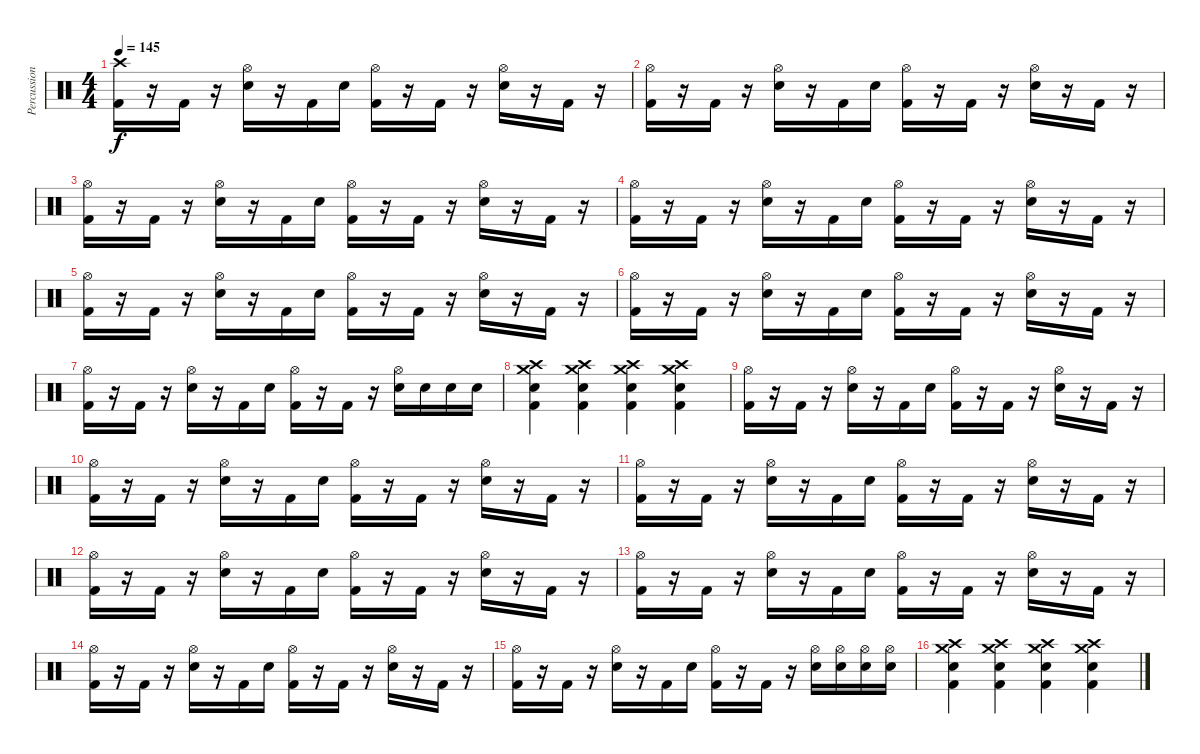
\track ("Percussion" "Percussion") {instrument percussion}
\staff {score}
\articulation defaults
\ts (4 4)
\tempo 145
\clef neutral
\ks c
("Crash high (hit)" "Kick (hit) 2").16{dy f} r.16 "Kick (hit) 2".16 r.16 ("Hi-Hat (open)" "Electric Snare (hit)").16 r.16 "Kick (hit) 2".16 "Electric Snare (hit)".16 ("Hi-Hat (open)" "Kick (hit) 2").16 r.16 "Kick (hit) 2".16 r.16 ("Hi-Hat (open)" "Electric Snare (hit)").16 r.16 "Kick (hit) 2".16 r.16 |
("Hi-Hat (open)" "Kick (hit) 2").16 r.16 "Kick (hit) 2".16 r.16 ("Hi-Hat (open)" "Electric Snare (hit)").16 r.16 "Kick (hit) 2".16 "Electric Snare (hit)".16 ("Hi-Hat (open)" "Kick (hit) 2").16 r.16 "Kick (hit) 2".16 r.16 ("Hi-Hat (open)" "Electric Snare (hit)").16 r.16 "Kick (hit) 2".16 r.16 |
("Hi-Hat (open)" "Kick (hit) 2").16 r.16 "Kick (hit) 2".16 r.16 ("Hi-Hat (open)" "Electric Snare (hit)").16 r.16 "Kick (hit) 2".16 "Electric Snare (hit)".16 ("Hi-Hat (open)" "Kick (hit) 2").16 r.16 "Kick (hit) 2".16 r.16 ("Hi-Hat (open)" "Electric Snare (hit)").16 r.16 "Kick (hit) 2".16 r.16 |
("Hi-Hat (open)" "Kick (hit) 2").16 r.16 "Kick (hit) 2".16 r.16 ("Hi-Hat (open)" "Electric Snare (hit)").16 r.16 "Kick (hit) 2".16 "Electric Snare (hit)".16 ("Hi-Hat (open)" "Kick (hit) 2").16 r.16 "Kick (hit) 2".16 r.16 ("Hi-Hat (open)" "Electric Snare (hit)").16 r.16 "Kick (hit) 2".16 r.16 |
("Hi-Hat (open)" "Kick (hit) 2").16 r.16 "Kick (hit) 2".16 r.16 ("Hi-Hat (open)" "Electric Snare (hit)").16 r.16 "Kick (hit) 2".16 "Electric Snare (hit)".16 ("Hi-Hat (open)" "Kick (hit) 2").16 r.16 "Kick (hit) 2".16 r.16 ("Hi-Hat (open)" "Electric Snare (hit)").16 r.16 "Kick (hit) 2".16 r.16 |
("Hi-Hat (open)" "Kick (hit) 2").16 r.16 "Kick (hit) 2".16 r.16 ("Hi-Hat (open)" "Electric Snare (hit)").16 r.16 "Kick (hit) 2".16 "Electric Snare (hit)".16 ("Hi-Hat (open)" "Kick (hit) 2").16 r.16 "Kick (hit) 2".16 r.16 ("Hi-Hat (open)" "Electric Snare (hit)").16 r.16 "Kick (hit) 2".16 r.16 |
("Hi-Hat (open)" "Kick (hit) 2").16 r.16 "Kick (hit) 2".16 r.16 ("Hi-Hat (open)" "Electric Snare (hit)").16 r.16 "Kick (hit) 2".16 "Electric Snare (hit)".16 ("Hi-Hat (open)" "Kick (hit) 2").16 r.16 "Kick (hit) 2".16 r.16 ("Hi-Hat (open)" "Electric Snare (hit)").16 "Electric Snare (hit)".16 "Electric Snare (hit)".16 "Electric Snare (hit)".16 |
("Crash high (hit)" "Crash medium (hit)" "Electric Snare (hit)" "Kick (hit) 2").4 ("Crash high (hit)" "Crash medium (hit)" "Electric Snare (hit)" "Kick (hit) 2").4 ("Crash high (hit)" "Crash medium (hit)" "Electric Snare (hit)" "Kick (hit) 2").4 ("Crash high (hit)" "Crash medium (hit)" "Electric Snare (hit)" "Kick (hit) 2").4 |
("Hi-Hat (open)" "Kick (hit) 2").16 r.16 "Kick (hit) 2".16 r.16 ("Hi-Hat (open)" "Electric Snare (hit)").16 r.16 "Kick (hit) 2".16 "Electric Snare (hit)".16 ("Hi-Hat (open)" "Kick (hit) 2").16 r.16 "Kick (hit) 2".16 r.16 ("Hi-Hat (open)" "Electric Snare (hit)").16 r.16 "Kick (hit) 2".16 r.16 |
("Hi-Hat (open)" "Kick (hit) 2").16 r.16 "Kick (hit) 2".16 r.16 ("Hi-Hat (open)" "Electric Snare (hit)").16 r.16 "Kick (hit) 2".16 "Electric Snare (hit)".16 ("Hi-Hat (open)" "Kick (hit) 2").16 r.16 "Kick (hit) 2".16 r.16 ("Hi-Hat (open)" "Electric Snare (hit)").16 r.16 "Kick (hit) 2".16 r.16 |
("Hi-Hat (open)" "Kick (hit) 2").16 r.16 "Kick (hit) 2".16 r.16 ("Hi-Hat (open)" "Electric Snare (hit)").16 r.16 "Kick (hit) 2".16 "Electric Snare (hit)".16 ("Hi-Hat (open)" "Kick (hit) 2").16 r.16 "Kick (hit) 2".16 r.16 ("Hi-Hat (open)" "Electric Snare (hit)").16 r.16 "Kick (hit) 2".16 r.16 |
("Hi-Hat (open)" "Kick (hit) 2").16 r.16 "Kick (hit) 2".16 r.16 ("Hi-Hat (open)" "Electric Snare (hit)").16 r.16 "Kick (hit) 2".16 "Electric Snare (hit)".16 ("Hi-Hat (open)" "Kick (hit) 2").16 r.16 "Kick (hit) 2".16 r.16 ("Hi-Hat (open)" "Electric Snare (hit)").16 r.16 "Kick (hit) 2".16 r.16 |
("Hi-Hat (open)" "Kick (hit) 2").16 r.16 "Kick (hit) 2".16 r.16 ("Hi-Hat (open)" "Electric Snare (hit)").16 r.16 "Kick (hit) 2".16 "Electric Snare (hit)".16 ("Hi-Hat (open)" "Kick (hit) 2").16 r.16 "Kick (hit) 2".16 r.16 ("Hi-Hat (open)" "Electric Snare (hit)").16 r.16 "Kick (hit) 2".16 r.16 |
("Hi-Hat (open)" "Kick (hit) 2").16 r.16 "Kick (hit) 2".16 r.16 ("Hi-Hat (open)" "Electric Snare (hit)").16 r.16 "Kick (hit) 2".16 "Electric Snare (hit)".16 ("Hi-Hat (open)" "Kick (hit) 2").16 r.16 "Kick (hit) 2".16 r.16 ("Hi-Hat (open)" "Electric Snare (hit)").16 r.16 "Kick (hit) 2".16 r.16 |
("Hi-Hat (open)" "Kick (hit) 2").16 r.16 "Kick (hit) 2".16 r.16 ("Hi-Hat (open)" "Electric Snare (hit)").16 r.16 "Kick (hit) 2".16 "Electric Snare (hit)".16 ("Hi-Hat (open)" "Kick (hit) 2").16 r.16 "Kick (hit) 2".16 r.16 ("Hi-Hat (open)" "Electric Snare (hit)").16 ("Hi-Hat (open)" "Electric Snare (hit)").16 ("Hi-Hat (open)" "Electric Snare (hit)").16 ("Hi-Hat (open)" "Electric Snare (hit)").16 |
("Crash high (hit)" "Crash medium (hit)" "Electric Snare (hit)" "Kick (hit) 2").4 ("Crash high (hit)" "Crash medium (hit)" "Electric Snare (hit)" "Kick (hit) 2").4 ("Crash high (hit)" "Crash medium (hit)" "Electric Snare (hit)" "Kick (hit) 2").4 ("Crash high (hit)" "Crash medium (hit)" "Electric Snare (hit)" "Kick (hit) 2").4
